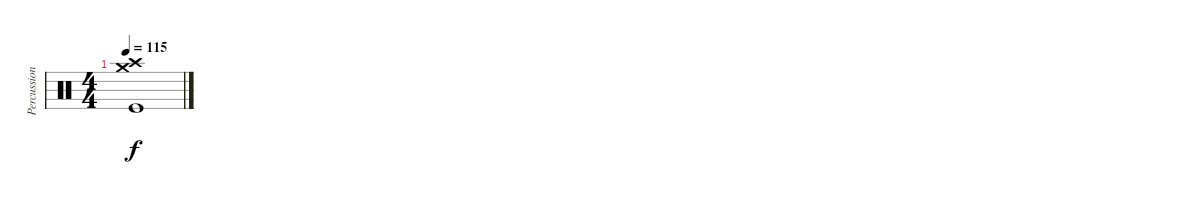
\track ("Percussion" "Percussion") {instrument percussion}
\staff {score}
\articulation defaults
\ts (4 4)
\tempo 115
\clef neutral
\ks c
("Kick (hit)" "Crash medium (hit)" "Crash high (hit)").1{dy f}
